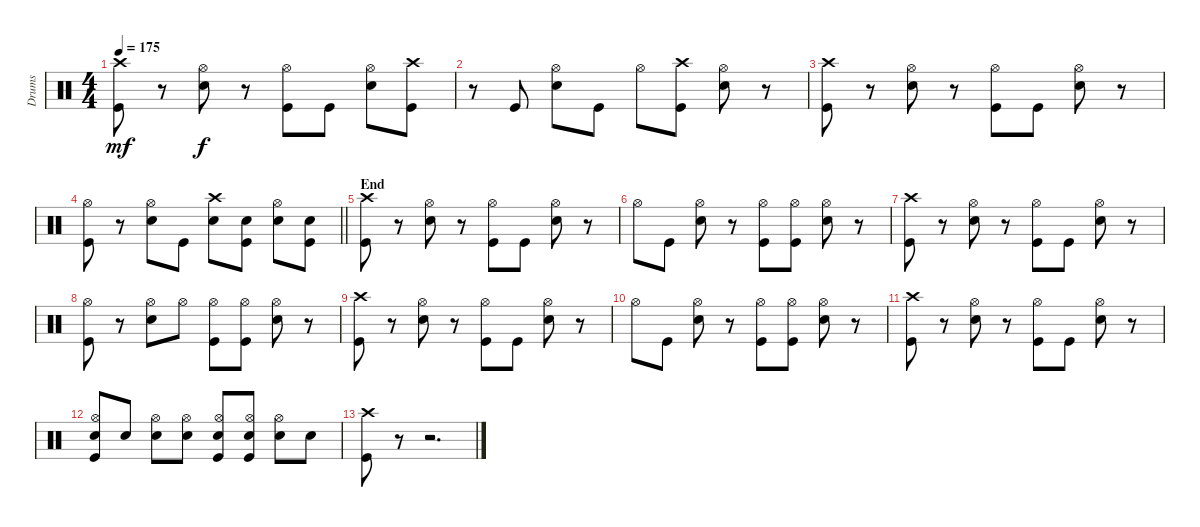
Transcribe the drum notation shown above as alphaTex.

\track ("Drums" "Drums") {instrument percussion}
\staff {score}
\articulation defaults
\ts (4 4)
\tempo 175
\clef neutral
\ks c
("Crash high (hit)" "Kick (hit)").8{dy mf} r.8 ("Hi-Hat (open)" "Snare (hit) 2").8{dy f} r.8 ("Hi-Hat (open)" "Kick (hit)").8 "Kick (hit)".8 ("Hi-Hat (open)" "Snare (hit) 2").8 ("Crash high (hit)" "Kick (hit)").8 |
r.8 "Kick (hit)".8 ("Hi-Hat (open)" "Snare (hit) 2").8 "Kick (hit)".8 "Hi-Hat (open)".8 ("Crash high (hit)" "Kick (hit)").8 ("Hi-Hat (open)" "Snare (hit) 2").8 r.8 |
("Crash high (hit)" "Kick (hit)").8 r.8 ("Hi-Hat (open)" "Snare (hit) 2").8 r.8 ("Hi-Hat (open)" "Kick (hit)").8 "Kick (hit)".8 ("Hi-Hat (open)" "Snare (hit) 2").8 r.8 |
\barLineRight lightlight
("Hi-Hat (open)" "Kick (hit)").8 r.8 ("Hi-Hat (open)" "Snare (hit) 2").8 "Kick (hit)".8 ("Crash high (hit)" "Snare (hit) 2").8 ("Snare (hit) 2" "Kick (hit)").8 ("Hi-Hat (open)" "Snare (hit) 2").8 ("Snare (hit) 2" "Kick (hit)").8 |
\section ("" "End")
("Crash high (hit)" "Kick (hit)").8 r.8 ("Hi-Hat (open)" "Snare (hit) 2").8 r.8 ("Hi-Hat (open)" "Kick (hit)").8 "Kick (hit)".8 ("Hi-Hat (open)" "Snare (hit) 2").8 r.8 |
"Hi-Hat (open)".8 "Kick (hit)".8 ("Hi-Hat (open)" "Snare (hit) 2").8 r.8 ("Hi-Hat (open)" "Kick (hit)").8 ("Hi-Hat (open)" "Kick (hit)").8 ("Hi-Hat (open)" "Snare (hit) 2").8 r.8 |
("Crash high (hit)" "Kick (hit)").8 r.8 ("Hi-Hat (open)" "Snare (hit) 2").8 r.8 ("Hi-Hat (open)" "Kick (hit)").8 "Kick (hit)".8 ("Hi-Hat (open)" "Snare (hit) 2").8 r.8 |
("Hi-Hat (open)" "Kick (hit)").8 r.8 ("Hi-Hat (open)" "Snare (hit) 2").8 "Hi-Hat (open)".8 ("Hi-Hat (open)" "Kick (hit)").8 ("Hi-Hat (open)" "Kick (hit)").8 ("Hi-Hat (open)" "Snare (hit) 2").8 r.8 |
("Crash high (hit)" "Kick (hit)").8 r.8 ("Hi-Hat (open)" "Snare (hit) 2").8 r.8 ("Hi-Hat (open)" "Kick (hit)").8 "Kick (hit)".8 ("Hi-Hat (open)" "Snare (hit) 2").8 r.8 |
"Hi-Hat (open)".8 "Kick (hit)".8 ("Hi-Hat (open)" "Snare (hit) 2").8 r.8 ("Hi-Hat (open)" "Kick (hit)").8 ("Hi-Hat (open)" "Kick (hit)").8 ("Hi-Hat (open)" "Snare (hit) 2").8 r.8 |
("Crash high (hit)" "Kick (hit)").8 r.8 ("Hi-Hat (open)" "Snare (hit) 2").8 r.8 ("Hi-Hat (open)" "Kick (hit)").8 "Kick (hit)".8 ("Hi-Hat (open)" "Snare (hit) 2").8 r.8 |
("Hi-Hat (open)" "Snare (hit) 2" "Kick (hit)").8 "Snare (hit) 2".8 ("Hi-Hat (open)" "Snare (hit) 2").8 ("Hi-Hat (open)" "Snare (hit) 2").8 ("Hi-Hat (open)" "Snare (hit) 2" "Kick (hit)").8 ("Hi-Hat (open)" "Snare (hit) 2" "Kick (hit)").8 ("Hi-Hat (open)" "Snare (hit) 2").8 "Snare (hit) 2".8 |
("Crash high (hit)" "Kick (hit)").8 r.8 r.2{d}
